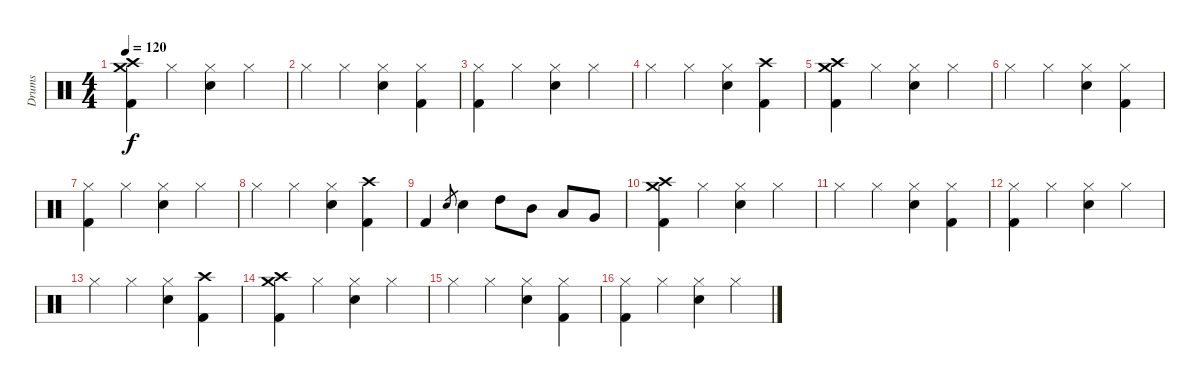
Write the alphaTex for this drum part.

\track ("Drums" "Drums") {instrument percussion}
\staff {score}
\articulation defaults
\ts (4 4)
\tempo 120
\clef neutral
\ks c
("Crash medium (hit)" "Crash high (hit)" "Kick (hit) 2").4{dy f} "Hi-Hat (closed)".4 ("Electric Snare (hit)" "Hi-Hat (closed)").4 "Hi-Hat (closed)".4 |
"Hi-Hat (closed)".4 "Hi-Hat (closed)".4 ("Electric Snare (hit)" "Hi-Hat (closed)").4 ("Kick (hit) 2" "Hi-Hat (closed)").4 |
("Kick (hit) 2" "Hi-Hat (closed)").4 "Hi-Hat (closed)".4 ("Electric Snare (hit)" "Hi-Hat (closed)").4 "Hi-Hat (closed)".4 |
"Hi-Hat (closed)".4 "Hi-Hat (closed)".4 ("Electric Snare (hit)" "Hi-Hat (closed)").4 ("Kick (hit) 2" "Crash high (hit)").4 |
("Crash medium (hit)" "Crash high (hit)" "Kick (hit) 2").4 "Hi-Hat (closed)".4 ("Electric Snare (hit)" "Hi-Hat (closed)").4 "Hi-Hat (closed)".4 |
"Hi-Hat (closed)".4 "Hi-Hat (closed)".4 ("Electric Snare (hit)" "Hi-Hat (closed)").4 ("Kick (hit) 2" "Hi-Hat (closed)").4 |
("Kick (hit) 2" "Hi-Hat (closed)").4 "Hi-Hat (closed)".4 ("Electric Snare (hit)" "Hi-Hat (closed)").4 "Hi-Hat (closed)".4 |
"Hi-Hat (closed)".4 "Hi-Hat (closed)".4 ("Electric Snare (hit)" "Hi-Hat (closed)").4 ("Kick (hit) 2" "Crash high (hit)").4 |
"Kick (hit) 2".4 "Electric Snare (hit)".8{gr} "Electric Snare (hit)".4 "High Tom (hit)".8 "Mid Tom (hit)".8 "Low Tom (hit)".8 "Very Low Tom (hit)".8 |
("Crash medium (hit)" "Crash high (hit)" "Kick (hit) 2").4 "Hi-Hat (closed)".4 ("Electric Snare (hit)" "Hi-Hat (closed)").4 "Hi-Hat (closed)".4 |
"Hi-Hat (closed)".4 "Hi-Hat (closed)".4 ("Electric Snare (hit)" "Hi-Hat (closed)").4 ("Kick (hit) 2" "Hi-Hat (closed)").4 |
("Kick (hit) 2" "Hi-Hat (closed)").4 "Hi-Hat (closed)".4 ("Electric Snare (hit)" "Hi-Hat (closed)").4 "Hi-Hat (closed)".4 |
"Hi-Hat (closed)".4 "Hi-Hat (closed)".4 ("Electric Snare (hit)" "Hi-Hat (closed)").4 ("Kick (hit) 2" "Crash high (hit)").4 |
("Crash medium (hit)" "Crash high (hit)" "Kick (hit) 2").4 "Hi-Hat (closed)".4 ("Electric Snare (hit)" "Hi-Hat (closed)").4 "Hi-Hat (closed)".4 |
"Hi-Hat (closed)".4 "Hi-Hat (closed)".4 ("Electric Snare (hit)" "Hi-Hat (closed)").4 ("Kick (hit) 2" "Hi-Hat (closed)").4 |
("Kick (hit) 2" "Hi-Hat (closed)").4 "Hi-Hat (closed)".4 ("Electric Snare (hit)" "Hi-Hat (closed)").4 "Hi-Hat (closed)".4
